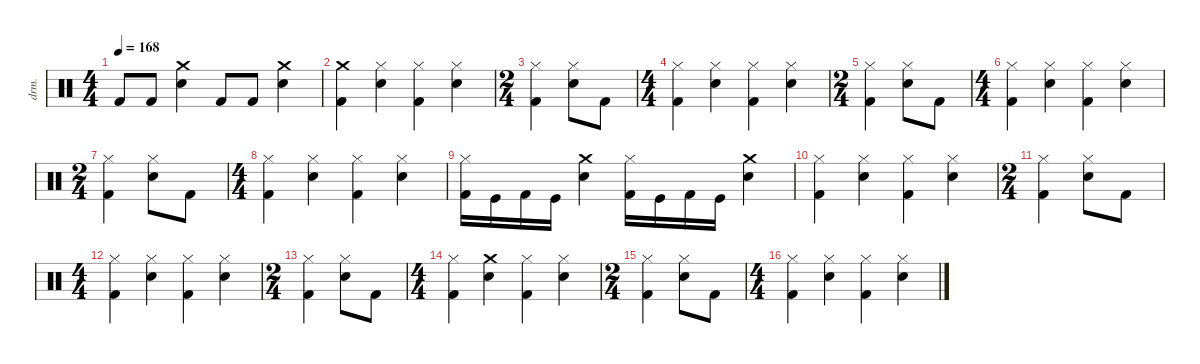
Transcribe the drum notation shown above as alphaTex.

\defaultSystemsLayout 4
\hideDynamics
\bracketExtendMode nobrackets
\otherSystemsTrackNameOrientation horizontal
\track ("Drums" "drm.") {instrument percussion}
\staff {score}
\articulation defaults
\ts (4 4)
\tempo 168
\clef neutral
\ks c "Kick (hit) 2".8{dy fff} "Kick (hit) 2".8
("Crash medium (hit)" "Snare (hit) 2").4 "Kick (hit) 2".8 "Kick (hit) 2".8 ("Crash medium (hit)" "Snare (hit) 2").4 |
("Kick (hit) 2" "Crash medium (hit)").4 ("Hi-Hat (closed)" "Snare (hit) 2").4 ("Hi-Hat (closed)" "Kick (hit) 2").4 ("Snare (hit) 2" "Hi-Hat (closed)").4 |
\ts (2 4)
\beaming (8 2 2)
("Hi-Hat (closed)" "Kick (hit) 2").4 ("Snare (hit) 2" "Hi-Hat (closed)").8 "Kick (hit) 2".8 |
\ts (4 4)
\beaming (8 2 2 2 2)
("Kick (hit) 2" "Hi-Hat (closed)").4 ("Snare (hit) 2" "Hi-Hat (closed)").4 ("Kick (hit) 2" "Hi-Hat (closed)").4 ("Snare (hit) 2" "Hi-Hat (closed)").4 |
\ts (2 4)
\beaming (8 2 2)
("Hi-Hat (closed)" "Kick (hit) 2").4 ("Snare (hit) 2" "Hi-Hat (closed)").8 "Kick (hit) 2".8 |
\ts (4 4)
\beaming (8 2 2 2 2)
("Kick (hit) 2" "Hi-Hat (closed)").4 ("Snare (hit) 2" "Hi-Hat (closed)").4 ("Kick (hit) 2" "Hi-Hat (closed)").4 ("Snare (hit) 2" "Hi-Hat (closed)").4 |
\ts (2 4)
\beaming (8 2 2)
("Hi-Hat (closed)" "Kick (hit) 2").4 ("Snare (hit) 2" "Hi-Hat (closed)").8 "Kick (hit) 2".8 |
\ts (4 4)
\beaming (8 2 2 2 2)
("Kick (hit) 2" "Hi-Hat (closed)").4 ("Snare (hit) 2" "Hi-Hat (closed)").4 ("Kick (hit) 2" "Hi-Hat (closed)").4 ("Snare (hit) 2" "Hi-Hat (closed)").4 |
("Hi-Hat (closed)" "Kick (hit) 2").16 "Kick (hit)".16 "Kick (hit) 2".16 "Kick (hit)".16 ("Crash medium (hit)" "Snare (hit) 2").4 ("Hi-Hat (closed)" "Kick (hit) 2").16 "Kick (hit)".16 "Kick (hit) 2".16 "Kick (hit)".16 ("Crash medium (hit)" "Snare (hit) 2").4 |
("Kick (hit) 2" "Hi-Hat (closed)").4 ("Snare (hit) 2" "Hi-Hat (closed)").4 ("Kick (hit) 2" "Hi-Hat (closed)").4 ("Snare (hit) 2" "Hi-Hat (closed)").4 |
\ts (2 4)
\beaming (8 2 2)
("Hi-Hat (closed)" "Kick (hit) 2").4 ("Snare (hit) 2" "Hi-Hat (closed)").8 "Kick (hit) 2".8 |
\ts (4 4)
\beaming (8 2 2 2 2)
("Kick (hit) 2" "Hi-Hat (closed)").4 ("Snare (hit) 2" "Hi-Hat (closed)").4 ("Kick (hit) 2" "Hi-Hat (closed)").4 ("Snare (hit) 2" "Hi-Hat (closed)").4 |
\ts (2 4)
\beaming (8 2 2)
("Hi-Hat (closed)" "Kick (hit) 2").4 ("Snare (hit) 2" "Hi-Hat (closed)").8 "Kick (hit) 2".8 |
\ts (4 4)
\beaming (8 2 2 2 2)
("Kick (hit) 2" "Hi-Hat (closed)").4 ("Crash medium (hit)" "Snare (hit) 2").4 ("Kick (hit) 2" "Hi-Hat (closed)").4 ("Snare (hit) 2" "Hi-Hat (closed)").4 |
\ts (2 4)
\beaming (8 2 2)
("Hi-Hat (closed)" "Kick (hit) 2").4 ("Snare (hit) 2" "Hi-Hat (closed)").8 "Kick (hit) 2".8 |
\ts (4 4)
\beaming (8 2 2 2 2)
("Kick (hit) 2" "Hi-Hat (closed)").4 ("Snare (hit) 2" "Hi-Hat (closed)").4 ("Kick (hit) 2" "Hi-Hat (closed)").4 ("Snare (hit) 2" "Hi-Hat (closed)").4
